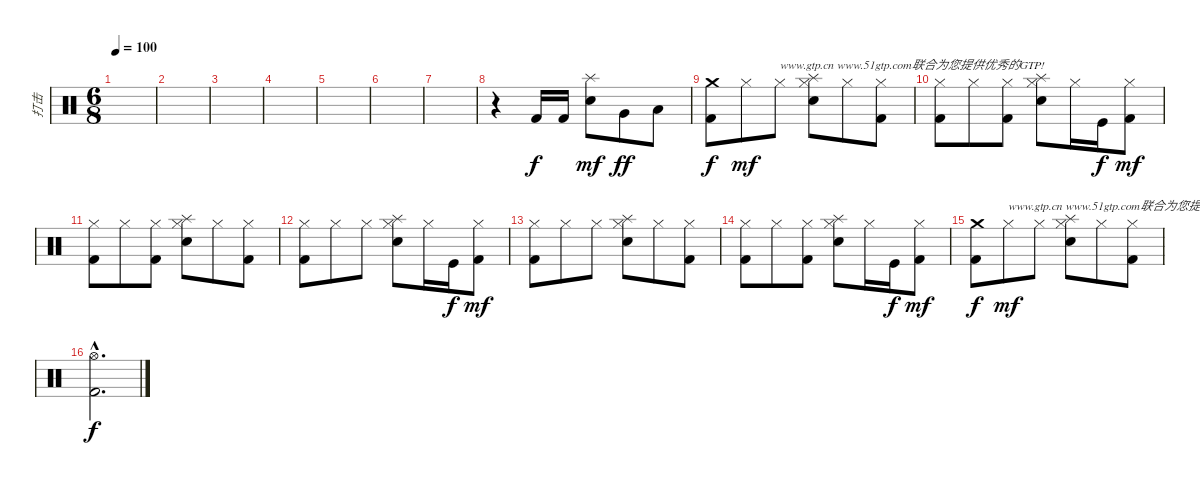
\track ("打击" "打击") {instrument percussion}
\staff {score}
\articulation defaults
\ts (6 8)
\tempo 100
\clef neutral
\ks c
|
|
|
|
|
|
|
r.4 "Kick (hit) 2".16 "Kick (hit) 2".16{dy f} ("Splash (hit)" "Electric Snare (hit)").8{dy mf} "Very Low Tom (hit)".8{dy ff} "Low Floor Tom (hit)".8 |
("Crash medium (hit)" "Kick (hit) 2").8{dy f} "Hi-Hat (closed)".8{dy mf} "Hi-Hat (closed)".8{txt "www.gtp.cn www.51gtp.com联合为您提供优秀的GTP!"} ("Hi-Hat (closed)" "Splash (hit)" "Electric Snare (hit)").8 "Hi-Hat (closed)".8 ("Hi-Hat (closed)" "Kick (hit) 2").8 |
("Hi-Hat (closed)" "Kick (hit) 2").8 "Hi-Hat (closed)".8 ("Hi-Hat (closed)" "Kick (hit) 2").8 ("Hi-Hat (closed)" "Splash (hit)" "Electric Snare (hit)").8 "Hi-Hat (closed)".16 "Kick (hit)".16{dy f} ("Hi-Hat (closed)" "Kick (hit) 2").8{dy mf} |
("Hi-Hat (closed)" "Kick (hit) 2").8 "Hi-Hat (closed)".8 ("Hi-Hat (closed)" "Kick (hit) 2").8 ("Hi-Hat (closed)" "Splash (hit)" "Electric Snare (hit)").8 "Hi-Hat (closed)".8 ("Hi-Hat (closed)" "Kick (hit) 2").8 |
("Hi-Hat (closed)" "Kick (hit) 2").8 "Hi-Hat (closed)".8 "Hi-Hat (closed)".8 ("Hi-Hat (closed)" "Splash (hit)" "Electric Snare (hit)").8 "Hi-Hat (closed)".16 "Kick (hit)".16{dy f} ("Hi-Hat (closed)" "Kick (hit) 2").8{dy mf} |
("Hi-Hat (closed)" "Kick (hit) 2").8 "Hi-Hat (closed)".8 "Hi-Hat (closed)".8 ("Hi-Hat (closed)" "Splash (hit)" "Electric Snare (hit)").8 "Hi-Hat (closed)".8 ("Hi-Hat (closed)" "Kick (hit) 2").8 |
("Hi-Hat (closed)" "Kick (hit) 2").8 "Hi-Hat (closed)".8 ("Hi-Hat (closed)" "Kick (hit) 2").8 ("Hi-Hat (closed)" "Splash (hit)" "Electric Snare (hit)").8 "Hi-Hat (closed)".16 "Kick (hit)".16{dy f} ("Hi-Hat (closed)" "Kick (hit) 2").8{dy mf} |
("Crash medium (hit)" "Kick (hit) 2").8{dy f} "Hi-Hat (closed)".8{txt "www.gtp.cn www.51gtp.com联合为您提供优秀的GTP!" dy mf} "Hi-Hat (closed)".8 ("Hi-Hat (closed)" "Splash (hit)" "Electric Snare (hit)").8 "Hi-Hat (closed)".8 ("Hi-Hat (closed)" "Kick (hit) 2").8 |
("Hi-Hat (open)"{hac} "Kick (hit) 2"{hac}).2{d dy f}
